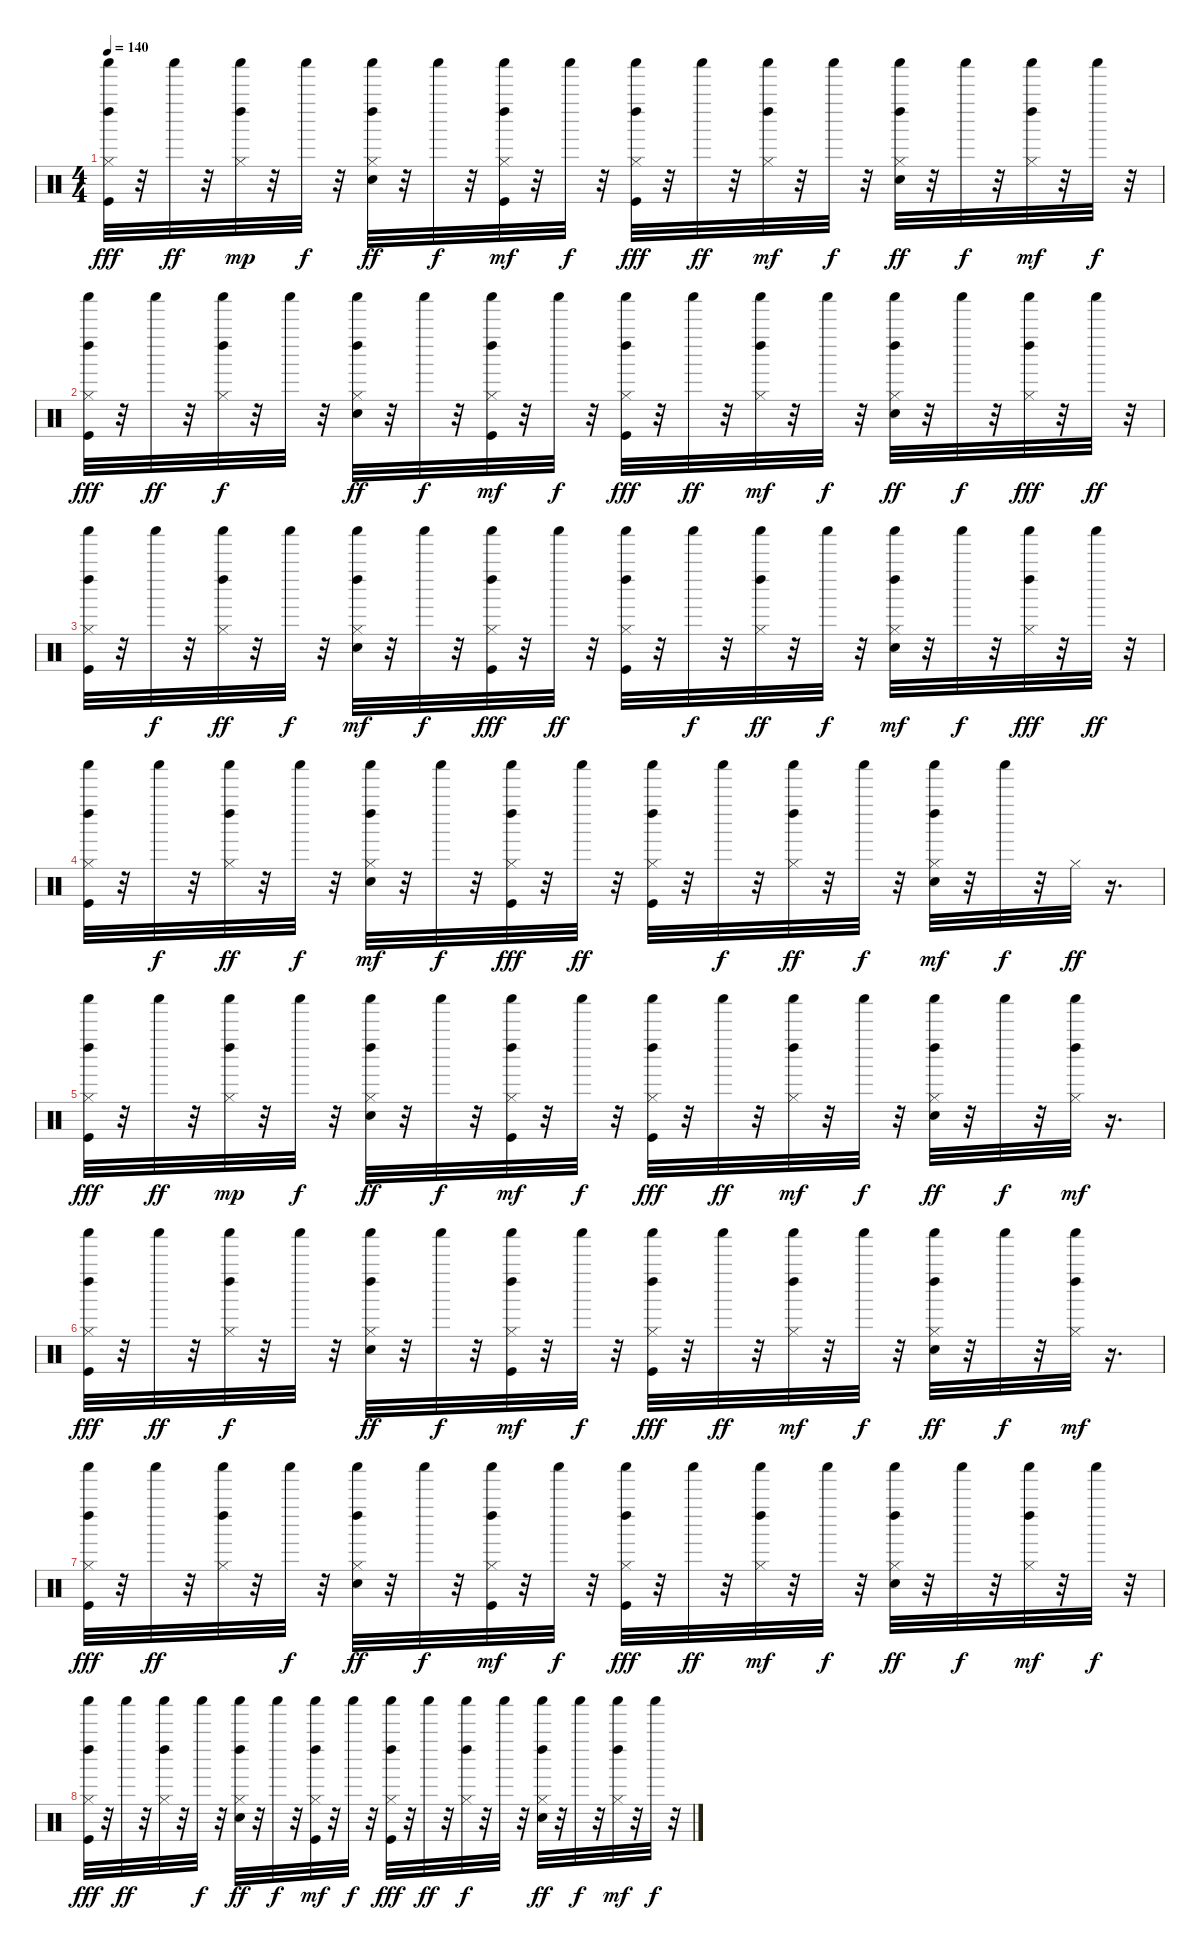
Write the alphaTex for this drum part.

\track "" {instrument percussion}
\staff {score}
\articulation defaults
\ts (4 4)
\tempo 140
\clef neutral
\ks c
("Kick (hit)" "Hi-Hat (closed)" "Left Maraca (hit)" "Shaker (hit)").32{dy fff} r.32 "Shaker (hit)".32{dy ff} r.32 ("Hi-Hat (closed)" "Left Maraca (hit)" "Shaker (hit)").32{dy mp} r.32 "Shaker (hit)".32{dy f} r.32 ("Electric Snare (hit)" "Hi-Hat (closed)" "Left Maraca (hit)" "Shaker (hit)").32{dy ff} r.32 "Shaker (hit)".32{dy f} r.32 ("Kick (hit)" "Hi-Hat (closed)" "Left Maraca (hit)" "Shaker (hit)").32{dy mf} r.32 "Shaker (hit)".32{dy f} r.32 ("Kick (hit)" "Hi-Hat (closed)" "Left Maraca (hit)" "Shaker (hit)").32{dy fff} r.32 "Shaker (hit)".32{dy ff} r.32 ("Hi-Hat (closed)" "Left Maraca (hit)" "Shaker (hit)").32{dy mf} r.32 "Shaker (hit)".32{dy f} r.32 ("Electric Snare (hit)" "Hi-Hat (closed)" "Left Maraca (hit)" "Shaker (hit)").32{dy ff} r.32 "Shaker (hit)".32{dy f} r.32 ("Hi-Hat (closed)" "Left Maraca (hit)" "Shaker (hit)").32{dy mf} r.32 "Shaker (hit)".32{dy f} r.32 |
("Kick (hit)" "Hi-Hat (closed)" "Left Maraca (hit)" "Shaker (hit)").32{dy fff} r.32 "Shaker (hit)".32{dy ff} r.32 ("Hi-Hat (closed)" "Left Maraca (hit)" "Shaker (hit)").32{dy f} r.32 "Shaker (hit)".32 r.32 ("Electric Snare (hit)" "Hi-Hat (closed)" "Left Maraca (hit)" "Shaker (hit)").32{dy ff} r.32 "Shaker (hit)".32{dy f} r.32 ("Kick (hit)" "Hi-Hat (closed)" "Left Maraca (hit)" "Shaker (hit)").32{dy mf} r.32 "Shaker (hit)".32{dy f} r.32 ("Kick (hit)" "Hi-Hat (closed)" "Left Maraca (hit)" "Shaker (hit)").32{dy fff} r.32 "Shaker (hit)".32{dy ff} r.32 ("Hi-Hat (closed)" "Left Maraca (hit)" "Shaker (hit)").32{dy mf} r.32 "Shaker (hit)".32{dy f} r.32 ("Electric Snare (hit)" "Hi-Hat (closed)" "Left Maraca (hit)" "Shaker (hit)").32{dy ff} r.32 "Shaker (hit)".32{dy f} r.32 ("Hi-Hat (closed)" "Left Maraca (hit)" "Shaker (hit)").32{dy fff} r.32 "Shaker (hit)".32{dy ff} r.32 |
("Kick (hit)" "Hi-Hat (closed)" "Left Maraca (hit)" "Shaker (hit)").32 r.32 "Shaker (hit)".32{dy f} r.32 ("Hi-Hat (closed)" "Left Maraca (hit)" "Shaker (hit)").32{dy ff} r.32 "Shaker (hit)".32{dy f} r.32 ("Electric Snare (hit)" "Hi-Hat (closed)" "Left Maraca (hit)" "Shaker (hit)").32{dy mf} r.32 "Shaker (hit)".32{dy f} r.32 ("Kick (hit)" "Hi-Hat (closed)" "Left Maraca (hit)" "Shaker (hit)").32{dy fff} r.32 "Shaker (hit)".32{dy ff} r.32 ("Kick (hit)" "Hi-Hat (closed)" "Left Maraca (hit)" "Shaker (hit)").32 r.32 "Shaker (hit)".32{dy f} r.32 ("Hi-Hat (closed)" "Left Maraca (hit)" "Shaker (hit)").32{dy ff} r.32 "Shaker (hit)".32{dy f} r.32 ("Electric Snare (hit)" "Hi-Hat (closed)" "Left Maraca (hit)" "Shaker (hit)").32{dy mf} r.32 "Shaker (hit)".32{dy f} r.32 ("Hi-Hat (closed)" "Left Maraca (hit)" "Shaker (hit)").32{dy fff} r.32 "Shaker (hit)".32{dy ff} r.32 |
("Kick (hit)" "Hi-Hat (closed)" "Left Maraca (hit)" "Shaker (hit)").32 r.32 "Shaker (hit)".32{dy f} r.32 ("Hi-Hat (closed)" "Left Maraca (hit)" "Shaker (hit)").32{dy ff} r.32 "Shaker (hit)".32{dy f} r.32 ("Electric Snare (hit)" "Hi-Hat (closed)" "Left Maraca (hit)" "Shaker (hit)").32{dy mf} r.32 "Shaker (hit)".32{dy f} r.32 ("Kick (hit)" "Hi-Hat (closed)" "Left Maraca (hit)" "Shaker (hit)").32{dy fff} r.32 "Shaker (hit)".32{dy ff} r.32 ("Kick (hit)" "Hi-Hat (closed)" "Left Maraca (hit)" "Shaker (hit)").32 r.32 "Shaker (hit)".32{dy f} r.32 ("Hi-Hat (closed)" "Left Maraca (hit)" "Shaker (hit)").32{dy ff} r.32 "Shaker (hit)".32{dy f} r.32 ("Electric Snare (hit)" "Hi-Hat (closed)" "Left Maraca (hit)" "Shaker (hit)").32{dy mf} r.32 "Shaker (hit)".32{dy f} r.32 "Hi-Hat (closed)".32{dy ff} r.16{d} |
("Kick (hit)" "Hi-Hat (closed)" "Left Maraca (hit)" "Shaker (hit)").32{dy fff} r.32 "Shaker (hit)".32{dy ff} r.32 ("Hi-Hat (closed)" "Left Maraca (hit)" "Shaker (hit)").32{dy mp} r.32 "Shaker (hit)".32{dy f} r.32 ("Electric Snare (hit)" "Hi-Hat (closed)" "Left Maraca (hit)" "Shaker (hit)").32{dy ff} r.32 "Shaker (hit)".32{dy f} r.32 ("Kick (hit)" "Hi-Hat (closed)" "Left Maraca (hit)" "Shaker (hit)").32{dy mf} r.32 "Shaker (hit)".32{dy f} r.32 ("Kick (hit)" "Hi-Hat (closed)" "Left Maraca (hit)" "Shaker (hit)").32{dy fff} r.32 "Shaker (hit)".32{dy ff} r.32 ("Hi-Hat (closed)" "Left Maraca (hit)" "Shaker (hit)").32{dy mf} r.32 "Shaker (hit)".32{dy f} r.32 ("Electric Snare (hit)" "Hi-Hat (closed)" "Left Maraca (hit)" "Shaker (hit)").32{dy ff} r.32 "Shaker (hit)".32{dy f} r.32 ("Hi-Hat (closed)" "Left Maraca (hit)" "Shaker (hit)").32{dy mf} r.16{d} |
("Kick (hit)" "Hi-Hat (closed)" "Left Maraca (hit)" "Shaker (hit)").32{dy fff} r.32 "Shaker (hit)".32{dy ff} r.32 ("Hi-Hat (closed)" "Left Maraca (hit)" "Shaker (hit)").32{dy f} r.32 "Shaker (hit)".32 r.32 ("Electric Snare (hit)" "Hi-Hat (closed)" "Left Maraca (hit)" "Shaker (hit)").32{dy ff} r.32 "Shaker (hit)".32{dy f} r.32 ("Kick (hit)" "Hi-Hat (closed)" "Left Maraca (hit)" "Shaker (hit)").32{dy mf} r.32 "Shaker (hit)".32{dy f} r.32 ("Kick (hit)" "Hi-Hat (closed)" "Left Maraca (hit)" "Shaker (hit)").32{dy fff} r.32 "Shaker (hit)".32{dy ff} r.32 ("Hi-Hat (closed)" "Left Maraca (hit)" "Shaker (hit)").32{dy mf} r.32 "Shaker (hit)".32{dy f} r.32 ("Electric Snare (hit)" "Hi-Hat (closed)" "Left Maraca (hit)" "Shaker (hit)").32{dy ff} r.32 "Shaker (hit)".32{dy f} r.32 ("Hi-Hat (closed)" "Left Maraca (hit)" "Shaker (hit)").32{dy mf} r.16{d} |
("Kick (hit)" "Hi-Hat (closed)" "Left Maraca (hit)" "Shaker (hit)").32{dy fff} r.32 "Shaker (hit)".32{dy ff} r.32 ("Hi-Hat (closed)" "Left Maraca (hit)" "Shaker (hit)").32 r.32 "Shaker (hit)".32{dy f} r.32 ("Electric Snare (hit)" "Hi-Hat (closed)" "Left Maraca (hit)" "Shaker (hit)").32{dy ff} r.32 "Shaker (hit)".32{dy f} r.32 ("Kick (hit)" "Hi-Hat (closed)" "Left Maraca (hit)" "Shaker (hit)").32{dy mf} r.32 "Shaker (hit)".32{dy f} r.32 ("Kick (hit)" "Hi-Hat (closed)" "Left Maraca (hit)" "Shaker (hit)").32{dy fff} r.32 "Shaker (hit)".32{dy ff} r.32 ("Hi-Hat (closed)" "Left Maraca (hit)" "Shaker (hit)").32{dy mf} r.32 "Shaker (hit)".32{dy f} r.32 ("Electric Snare (hit)" "Hi-Hat (closed)" "Left Maraca (hit)" "Shaker (hit)").32{dy ff} r.32 "Shaker (hit)".32{dy f} r.32 ("Hi-Hat (closed)" "Left Maraca (hit)" "Shaker (hit)").32{dy mf} r.32 "Shaker (hit)".32{dy f} r.32 |
("Kick (hit)" "Hi-Hat (closed)" "Left Maraca (hit)" "Shaker (hit)").32{dy fff} r.32 "Shaker (hit)".32{dy ff} r.32 ("Hi-Hat (closed)" "Left Maraca (hit)" "Shaker (hit)").32 r.32 "Shaker (hit)".32{dy f} r.32 ("Electric Snare (hit)" "Hi-Hat (closed)" "Left Maraca (hit)" "Shaker (hit)").32{dy ff} r.32 "Shaker (hit)".32{dy f} r.32 ("Kick (hit)" "Hi-Hat (closed)" "Left Maraca (hit)" "Shaker (hit)").32{dy mf} r.32 "Shaker (hit)".32{dy f} r.32 ("Kick (hit)" "Hi-Hat (closed)" "Left Maraca (hit)" "Shaker (hit)").32{dy fff} r.32 "Shaker (hit)".32{dy ff} r.32 ("Hi-Hat (closed)" "Left Maraca (hit)" "Shaker (hit)").32{dy f} r.32 "Shaker (hit)".32 r.32 ("Electric Snare (hit)" "Hi-Hat (closed)" "Left Maraca (hit)" "Shaker (hit)").32{dy ff} r.32 "Shaker (hit)".32{dy f} r.32 ("Hi-Hat (closed)" "Left Maraca (hit)" "Shaker (hit)").32{dy mf} r.32 "Shaker (hit)".32{dy f} r.32
